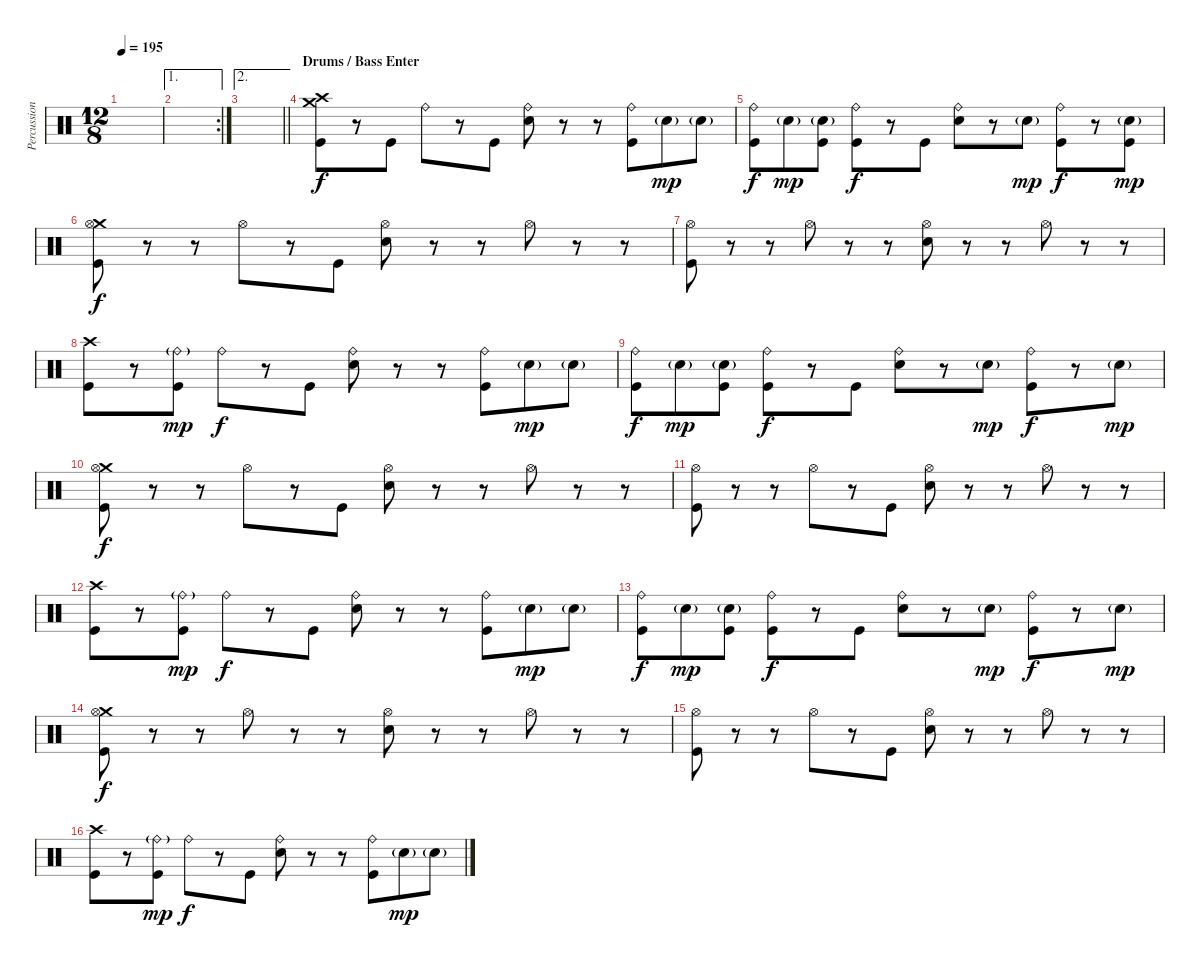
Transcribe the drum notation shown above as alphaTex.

\track ("Percussion" "Percussion") {instrument percussion}
\staff {score}
\articulation defaults
\ts (12 8)
\tempo 195
\clef neutral
\ks c
|
\ae 1
\rc 2
|
\ae 2
\barLineRight lightlight
|
\section ("" "Drums / Bass Enter")
("Crash medium (hit)" "Crash high (hit)" "Kick (hit)").8 r.8 "Kick (hit)".8 "Ride (bell)".8 r.8 "Kick (hit)".8 ("Ride (bell)" "Electric Snare (hit)").8 r.8 r.8 ("Ride (bell)" "Kick (hit)").8 "Snare (hit) 2"{g}.8{dy mp} "Snare (hit) 2"{g}.8 |
("Ride (bell)" "Kick (hit)").8{dy f} "Snare (hit) 2"{g}.8{dy mp} ("Snare (hit) 2"{g} "Kick (hit)").8 ("Ride (bell)" "Kick (hit)").8{dy f} r.8 "Kick (hit)".8 ("Ride (bell)" "Electric Snare (hit)").8 r.8 "Snare (hit) 2"{g}.8{dy mp} ("Ride (bell)" "Kick (hit)").8{dy f} r.8 ("Snare (hit) 2"{g} "Kick (hit)").8{dy mp} |
("Crash medium (hit)" "Hi-Hat (open)" "Kick (hit)").8{dy f} r.8 r.8 "Hi-Hat (open)".8 r.8 "Kick (hit)".8 ("Hi-Hat (open)" "Electric Snare (hit)").8 r.8 r.8 "Hi-Hat (open)".8 r.8 r.8 |
("Hi-Hat (open)" "Kick (hit)").8 r.8 r.8 "Hi-Hat (open)".8 r.8 r.8 ("Hi-Hat (open)" "Electric Snare (hit)").8 r.8 r.8 "Hi-Hat (open)".8 r.8 r.8 |
("Crash high (hit)" "Kick (hit)").8 r.8 ("Ride (bell)"{g} "Kick (hit)").8{dy mp} "Ride (bell)".8{dy f} r.8 "Kick (hit)".8 ("Ride (bell)" "Electric Snare (hit)").8 r.8 r.8 ("Ride (bell)" "Kick (hit)").8 "Snare (hit) 2"{g}.8{dy mp} "Snare (hit) 2"{g}.8 |
("Ride (bell)" "Kick (hit)").8{dy f} "Snare (hit) 2"{g}.8{dy mp} ("Snare (hit) 2"{g} "Kick (hit)").8 ("Ride (bell)" "Kick (hit)").8{dy f} r.8 "Kick (hit)".8 ("Ride (bell)" "Electric Snare (hit)").8 r.8 "Snare (hit) 2"{g}.8{dy mp} ("Ride (bell)" "Kick (hit)").8{dy f} r.8 "Snare (hit) 2"{g}.8{dy mp} |
("Crash medium (hit)" "Hi-Hat (open)" "Kick (hit)").8{dy f} r.8 r.8 "Hi-Hat (open)".8 r.8 "Kick (hit)".8 ("Hi-Hat (open)" "Electric Snare (hit)").8 r.8 r.8 "Hi-Hat (open)".8 r.8 r.8 |
("Hi-Hat (open)" "Kick (hit)").8 r.8 r.8 "Hi-Hat (open)".8 r.8 "Kick (hit)".8 ("Hi-Hat (open)" "Electric Snare (hit)").8 r.8 r.8 "Hi-Hat (open)".8 r.8 r.8 |
("Crash high (hit)" "Kick (hit)").8 r.8 ("Ride (bell)"{g} "Kick (hit)").8{dy mp} "Ride (bell)".8{dy f} r.8 "Kick (hit)".8 ("Ride (bell)" "Electric Snare (hit)").8 r.8 r.8 ("Ride (bell)" "Kick (hit)").8 "Snare (hit) 2"{g}.8{dy mp} "Snare (hit) 2"{g}.8 |
("Ride (bell)" "Kick (hit)").8{dy f} "Snare (hit) 2"{g}.8{dy mp} ("Snare (hit) 2"{g} "Kick (hit)").8 ("Ride (bell)" "Kick (hit)").8{dy f} r.8 "Kick (hit)".8 ("Ride (bell)" "Electric Snare (hit)").8 r.8 "Snare (hit) 2"{g}.8{dy mp} ("Ride (bell)" "Kick (hit)").8{dy f} r.8 "Snare (hit) 2"{g}.8{dy mp} |
("Crash medium (hit)" "Hi-Hat (open)" "Kick (hit)").8{dy f} r.8 r.8 "Hi-Hat (open)".8 r.8 r.8 ("Hi-Hat (open)" "Electric Snare (hit)").8 r.8 r.8 "Hi-Hat (open)".8 r.8 r.8 |
("Hi-Hat (open)" "Kick (hit)").8 r.8 r.8 "Hi-Hat (open)".8 r.8 "Kick (hit)".8 ("Hi-Hat (open)" "Electric Snare (hit)").8 r.8 r.8 "Hi-Hat (open)".8 r.8 r.8 |
("Crash high (hit)" "Kick (hit)").8 r.8 ("Ride (bell)"{g} "Kick (hit)").8{dy mp} "Ride (bell)".8{dy f} r.8 "Kick (hit)".8 ("Ride (bell)" "Electric Snare (hit)").8 r.8 r.8 ("Ride (bell)" "Kick (hit)").8 "Snare (hit) 2"{g}.8{dy mp} "Snare (hit) 2"{g}.8
